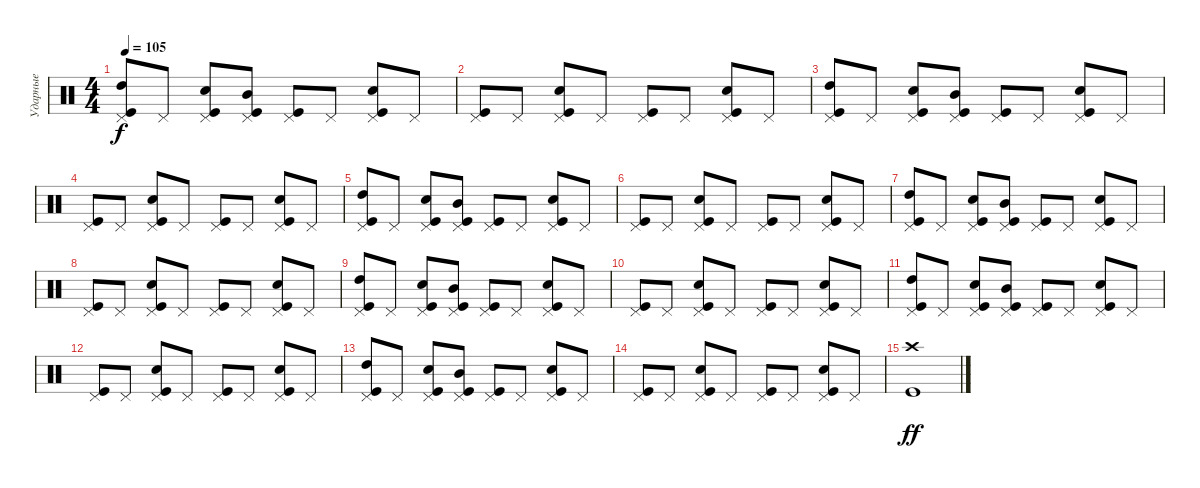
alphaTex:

\track ("Ударные" "Ударные") {instrument percussion}
\staff {score}
\articulation defaults
\ts (4 4)
\tempo 105
\clef neutral
\ks c
("Pedal Hi-Hat (hit)" "Kick (hit)" "High Tom (hit)").8{dy f} "Pedal Hi-Hat (hit)".8 ("Pedal Hi-Hat (hit)" "Kick (hit)" "Snare (hit) 2").8 ("Pedal Hi-Hat (hit)" "Kick (hit)" "Mid Tom (hit)").8 ("Pedal Hi-Hat (hit)" "Kick (hit)").8 "Pedal Hi-Hat (hit)".8 ("Pedal Hi-Hat (hit)" "Kick (hit)" "Snare (hit) 2").8 "Pedal Hi-Hat (hit)".8 |
("Pedal Hi-Hat (hit)" "Kick (hit)").8 "Pedal Hi-Hat (hit)".8 ("Pedal Hi-Hat (hit)" "Kick (hit)" "Snare (hit) 2").8 "Pedal Hi-Hat (hit)".8 ("Pedal Hi-Hat (hit)" "Kick (hit)").8 "Pedal Hi-Hat (hit)".8 ("Pedal Hi-Hat (hit)" "Kick (hit)" "Snare (hit) 2").8 "Pedal Hi-Hat (hit)".8 |
("Pedal Hi-Hat (hit)" "Kick (hit)" "High Tom (hit)").8 "Pedal Hi-Hat (hit)".8 ("Pedal Hi-Hat (hit)" "Kick (hit)" "Snare (hit) 2").8 ("Pedal Hi-Hat (hit)" "Kick (hit)" "Mid Tom (hit)").8 ("Pedal Hi-Hat (hit)" "Kick (hit)").8 "Pedal Hi-Hat (hit)".8 ("Pedal Hi-Hat (hit)" "Kick (hit)" "Snare (hit) 2").8 "Pedal Hi-Hat (hit)".8 |
("Pedal Hi-Hat (hit)" "Kick (hit)").8 "Pedal Hi-Hat (hit)".8 ("Pedal Hi-Hat (hit)" "Kick (hit)" "Snare (hit) 2").8 "Pedal Hi-Hat (hit)".8 ("Pedal Hi-Hat (hit)" "Kick (hit)").8 "Pedal Hi-Hat (hit)".8 ("Pedal Hi-Hat (hit)" "Kick (hit)" "Snare (hit) 2").8 "Pedal Hi-Hat (hit)".8 |
("Pedal Hi-Hat (hit)" "Kick (hit)" "High Tom (hit)").8 "Pedal Hi-Hat (hit)".8 ("Pedal Hi-Hat (hit)" "Kick (hit)" "Snare (hit) 2").8 ("Pedal Hi-Hat (hit)" "Kick (hit)" "Mid Tom (hit)").8 ("Pedal Hi-Hat (hit)" "Kick (hit)").8 "Pedal Hi-Hat (hit)".8 ("Pedal Hi-Hat (hit)" "Kick (hit)" "Snare (hit) 2").8 "Pedal Hi-Hat (hit)".8 |
("Pedal Hi-Hat (hit)" "Kick (hit)").8 "Pedal Hi-Hat (hit)".8 ("Pedal Hi-Hat (hit)" "Kick (hit)" "Snare (hit) 2").8 "Pedal Hi-Hat (hit)".8 ("Pedal Hi-Hat (hit)" "Kick (hit)").8 "Pedal Hi-Hat (hit)".8 ("Pedal Hi-Hat (hit)" "Kick (hit)" "Snare (hit) 2").8 "Pedal Hi-Hat (hit)".8 |
("Pedal Hi-Hat (hit)" "Kick (hit)" "High Tom (hit)").8 "Pedal Hi-Hat (hit)".8 ("Pedal Hi-Hat (hit)" "Kick (hit)" "Snare (hit) 2").8 ("Pedal Hi-Hat (hit)" "Kick (hit)" "Mid Tom (hit)").8 ("Pedal Hi-Hat (hit)" "Kick (hit)").8 "Pedal Hi-Hat (hit)".8 ("Pedal Hi-Hat (hit)" "Kick (hit)" "Snare (hit) 2").8 "Pedal Hi-Hat (hit)".8 |
("Pedal Hi-Hat (hit)" "Kick (hit)").8 "Pedal Hi-Hat (hit)".8 ("Pedal Hi-Hat (hit)" "Kick (hit)" "Snare (hit) 2").8 "Pedal Hi-Hat (hit)".8 ("Pedal Hi-Hat (hit)" "Kick (hit)").8 "Pedal Hi-Hat (hit)".8 ("Pedal Hi-Hat (hit)" "Kick (hit)" "Snare (hit) 2").8 "Pedal Hi-Hat (hit)".8 |
("Pedal Hi-Hat (hit)" "Kick (hit)" "High Tom (hit)").8 "Pedal Hi-Hat (hit)".8 ("Pedal Hi-Hat (hit)" "Kick (hit)" "Snare (hit) 2").8 ("Pedal Hi-Hat (hit)" "Kick (hit)" "Mid Tom (hit)").8 ("Pedal Hi-Hat (hit)" "Kick (hit)").8 "Pedal Hi-Hat (hit)".8 ("Pedal Hi-Hat (hit)" "Kick (hit)" "Snare (hit) 2").8 "Pedal Hi-Hat (hit)".8 |
("Pedal Hi-Hat (hit)" "Kick (hit)").8 "Pedal Hi-Hat (hit)".8 ("Pedal Hi-Hat (hit)" "Kick (hit)" "Snare (hit) 2").8 "Pedal Hi-Hat (hit)".8 ("Pedal Hi-Hat (hit)" "Kick (hit)").8 "Pedal Hi-Hat (hit)".8 ("Pedal Hi-Hat (hit)" "Kick (hit)" "Snare (hit) 2").8 "Pedal Hi-Hat (hit)".8 |
("Pedal Hi-Hat (hit)" "Kick (hit)" "High Tom (hit)").8 "Pedal Hi-Hat (hit)".8 ("Pedal Hi-Hat (hit)" "Kick (hit)" "Snare (hit) 2").8 ("Pedal Hi-Hat (hit)" "Kick (hit)" "Mid Tom (hit)").8 ("Pedal Hi-Hat (hit)" "Kick (hit)").8 "Pedal Hi-Hat (hit)".8 ("Pedal Hi-Hat (hit)" "Kick (hit)" "Snare (hit) 2").8 "Pedal Hi-Hat (hit)".8 |
("Pedal Hi-Hat (hit)" "Kick (hit)").8 "Pedal Hi-Hat (hit)".8 ("Pedal Hi-Hat (hit)" "Kick (hit)" "Snare (hit) 2").8 "Pedal Hi-Hat (hit)".8 ("Pedal Hi-Hat (hit)" "Kick (hit)").8 "Pedal Hi-Hat (hit)".8 ("Pedal Hi-Hat (hit)" "Kick (hit)" "Snare (hit) 2").8 "Pedal Hi-Hat (hit)".8 |
("Pedal Hi-Hat (hit)" "Kick (hit)" "High Tom (hit)").8 "Pedal Hi-Hat (hit)".8 ("Pedal Hi-Hat (hit)" "Kick (hit)" "Snare (hit) 2").8 ("Pedal Hi-Hat (hit)" "Kick (hit)" "Mid Tom (hit)").8 ("Pedal Hi-Hat (hit)" "Kick (hit)").8 "Pedal Hi-Hat (hit)".8 ("Pedal Hi-Hat (hit)" "Kick (hit)" "Snare (hit) 2").8 "Pedal Hi-Hat (hit)".8 |
("Pedal Hi-Hat (hit)" "Kick (hit)").8 "Pedal Hi-Hat (hit)".8 ("Pedal Hi-Hat (hit)" "Kick (hit)" "Snare (hit) 2").8 "Pedal Hi-Hat (hit)".8 ("Pedal Hi-Hat (hit)" "Kick (hit)").8 "Pedal Hi-Hat (hit)".8 ("Pedal Hi-Hat (hit)" "Kick (hit)" "Snare (hit) 2").8 "Pedal Hi-Hat (hit)".8 |
("Crash high (hit)" "Kick (hit)").1{dy ff}
